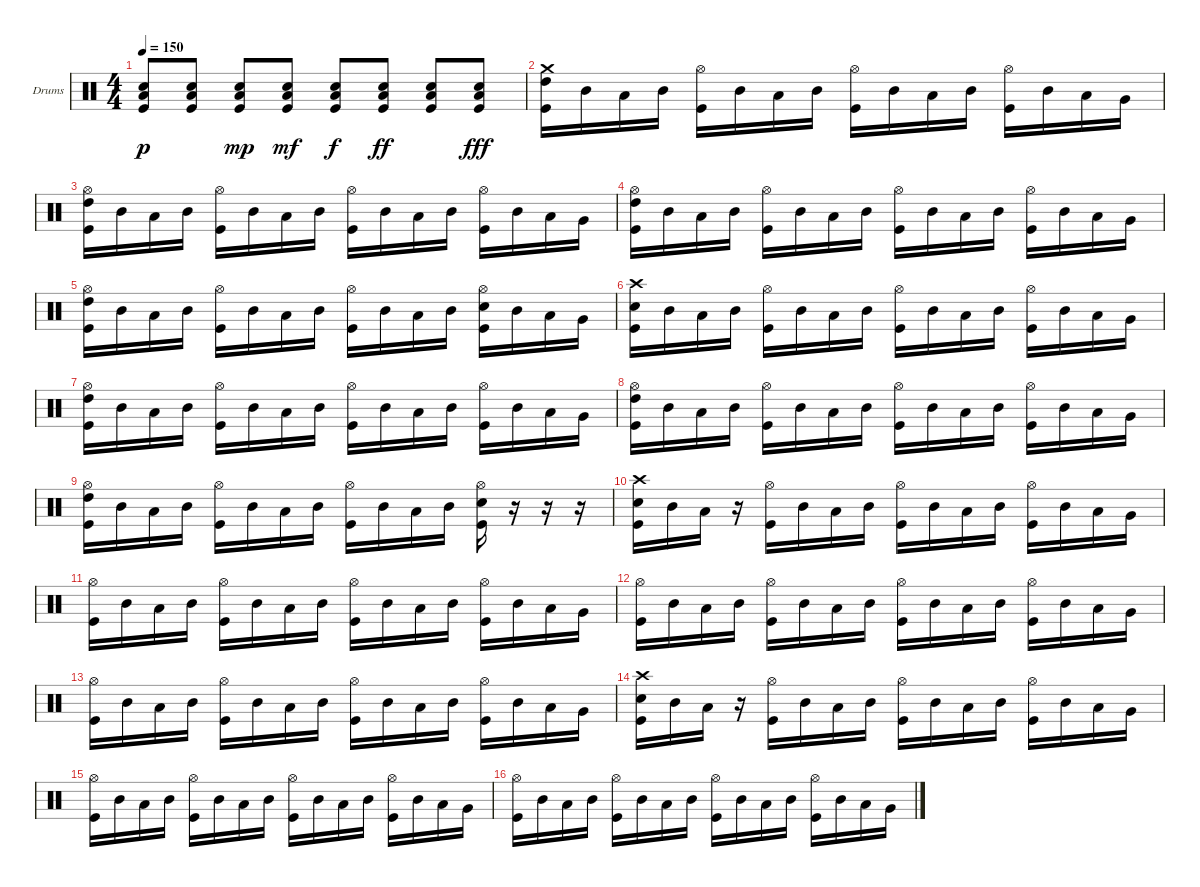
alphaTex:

\bracketExtendMode groupsimilarinstruments
\firstSystemTrackNameOrientation horizontal
\otherSystemsTrackNameOrientation horizontal
\track ("Corey" "Drums") {instrument percussion}
\staff {score}
\articulation defaults
\ts (4 4)
\tempo 150
\clef neutral
\ks c
("Kick (hit)" "Low Tom (hit)" "Snare (hit) 2").8{dy p} ("Kick (hit)" "Low Tom (hit)" "Snare (hit) 2").8 ("Kick (hit)" "Low Tom (hit)" "Snare (hit) 2").8{dy mp} ("Kick (hit)" "Low Tom (hit)" "Snare (hit) 2").8{dy mf} ("Kick (hit)" "Low Tom (hit)" "Snare (hit) 2").8{dy f} ("Kick (hit)" "Low Tom (hit)" "Snare (hit) 2").8{dy ff} ("Kick (hit)" "Low Tom (hit)" "Snare (hit) 2").8 ("Kick (hit)" "Low Tom (hit)" "Snare (hit) 2").8{dy fff} |
("High Tom (hit)" "Kick (hit)" "Crash medium (hit)").16 "Mid Tom (hit)".16 "Low Tom (hit)".16 "Mid Tom (hit)".16 ("Kick (hit)" "Hi-Hat (open)").16 "Mid Tom (hit)".16 "Low Tom (hit)".16 "Mid Tom (hit)".16 ("Kick (hit)" "Hi-Hat (open)").16 "Mid Tom (hit)".16 "Low Tom (hit)".16 "Mid Tom (hit)".16 ("Kick (hit)" "Hi-Hat (open)").16 "Mid Tom (hit)".16 "Low Tom (hit)".16 "Very Low Tom (hit)".16 |
("High Tom (hit)" "Kick (hit)" "Hi-Hat (open)").16 "Mid Tom (hit)".16 "Low Tom (hit)".16 "Mid Tom (hit)".16 ("Kick (hit)" "Hi-Hat (open)").16 "Mid Tom (hit)".16 "Low Tom (hit)".16 "Mid Tom (hit)".16 ("Kick (hit)" "Hi-Hat (open)").16 "Mid Tom (hit)".16 "Low Tom (hit)".16 "Mid Tom (hit)".16 ("Kick (hit)" "Hi-Hat (open)").16 "Mid Tom (hit)".16 "Low Tom (hit)".16 "Very Low Tom (hit)".16 |
("High Tom (hit)" "Kick (hit)" "Hi-Hat (open)").16 "Mid Tom (hit)".16 "Low Tom (hit)".16 "Mid Tom (hit)".16 ("Kick (hit)" "Hi-Hat (open)").16 "Mid Tom (hit)".16 "Low Tom (hit)".16 "Mid Tom (hit)".16 ("Kick (hit)" "Hi-Hat (open)").16 "Mid Tom (hit)".16 "Low Tom (hit)".16 "Mid Tom (hit)".16 ("Kick (hit)" "Hi-Hat (open)").16 "Mid Tom (hit)".16 "Low Tom (hit)".16 "Very Low Tom (hit)".16 |
("High Tom (hit)" "Kick (hit)" "Hi-Hat (open)").16 "Mid Tom (hit)".16 "Low Tom (hit)".16 "Mid Tom (hit)".16 ("Kick (hit)" "Hi-Hat (open)").16 "Mid Tom (hit)".16 "Low Tom (hit)".16 "Mid Tom (hit)".16 ("Kick (hit)" "Hi-Hat (open)").16 "Mid Tom (hit)".16 "Low Tom (hit)".16 "Mid Tom (hit)".16 ("Kick (hit)" "Snare (hit) 2" "Hi-Hat (open)").16 "Mid Tom (hit)".16 "Low Tom (hit)".16 "Very Low Tom (hit)".16 |
("Kick (hit)" "Snare (hit) 2" "Crash high (hit)").16 "Mid Tom (hit)".16 "Low Tom (hit)".16 "Mid Tom (hit)".16 ("Kick (hit)" "Hi-Hat (open)").16 "Mid Tom (hit)".16 "Low Tom (hit)".16 "Mid Tom (hit)".16 ("Kick (hit)" "Hi-Hat (open)").16 "Mid Tom (hit)".16 "Low Tom (hit)".16 "Mid Tom (hit)".16 ("Kick (hit)" "Hi-Hat (open)").16 "Mid Tom (hit)".16 "Low Tom (hit)".16 "Very Low Tom (hit)".16 |
("High Tom (hit)" "Kick (hit)" "Hi-Hat (open)").16 "Mid Tom (hit)".16 "Low Tom (hit)".16 "Mid Tom (hit)".16 ("Kick (hit)" "Hi-Hat (open)").16 "Mid Tom (hit)".16 "Low Tom (hit)".16 "Mid Tom (hit)".16 ("Kick (hit)" "Hi-Hat (open)").16 "Mid Tom (hit)".16 "Low Tom (hit)".16 "Mid Tom (hit)".16 ("Kick (hit)" "Hi-Hat (open)").16 "Mid Tom (hit)".16 "Low Tom (hit)".16 "Very Low Tom (hit)".16 |
("High Tom (hit)" "Kick (hit)" "Hi-Hat (open)").16 "Mid Tom (hit)".16 "Low Tom (hit)".16 "Mid Tom (hit)".16 ("Kick (hit)" "Hi-Hat (open)").16 "Mid Tom (hit)".16 "Low Tom (hit)".16 "Mid Tom (hit)".16 ("Kick (hit)" "Hi-Hat (open)").16 "Mid Tom (hit)".16 "Low Tom (hit)".16 "Mid Tom (hit)".16 ("Kick (hit)" "Hi-Hat (open)").16 "Mid Tom (hit)".16 "Low Tom (hit)".16 "Very Low Tom (hit)".16 |
("High Tom (hit)" "Kick (hit)" "Hi-Hat (open)").16 "Mid Tom (hit)".16 "Low Tom (hit)".16 "Mid Tom (hit)".16 ("Kick (hit)" "Hi-Hat (open)").16 "Mid Tom (hit)".16 "Low Tom (hit)".16 "Mid Tom (hit)".16 ("Kick (hit)" "Hi-Hat (open)").16 "Mid Tom (hit)".16 "Low Tom (hit)".16 "Mid Tom (hit)".16 ("Kick (hit)" "Snare (hit) 2" "Hi-Hat (open)").16 r.16 r.16 r.16 |
("Kick (hit)" "Snare (hit) 2" "Crash high (hit)").16 "Mid Tom (hit)".16 "Low Tom (hit)".16 r.16 ("Kick (hit)" "Hi-Hat (open)").16 "Mid Tom (hit)".16 "Low Tom (hit)".16 "Mid Tom (hit)".16 ("Kick (hit)" "Hi-Hat (open)").16 "Mid Tom (hit)".16 "Low Tom (hit)".16 "Mid Tom (hit)".16 ("Kick (hit)" "Hi-Hat (open)").16 "Mid Tom (hit)".16 "Low Tom (hit)".16 "Very Low Tom (hit)".16 |
("Kick (hit)" "Hi-Hat (open)").16 "Mid Tom (hit)".16 "Low Tom (hit)".16 "Mid Tom (hit)".16 ("Kick (hit)" "Hi-Hat (open)").16 "Mid Tom (hit)".16 "Low Tom (hit)".16 "Mid Tom (hit)".16 ("Kick (hit)" "Hi-Hat (open)").16 "Mid Tom (hit)".16 "Low Tom (hit)".16 "Mid Tom (hit)".16 ("Kick (hit)" "Hi-Hat (open)").16 "Mid Tom (hit)".16 "Low Tom (hit)".16 "Very Low Tom (hit)".16 |
("Kick (hit)" "Hi-Hat (open)").16 "Mid Tom (hit)".16 "Low Tom (hit)".16 "Mid Tom (hit)".16 ("Kick (hit)" "Hi-Hat (open)").16 "Mid Tom (hit)".16 "Low Tom (hit)".16 "Mid Tom (hit)".16 ("Kick (hit)" "Hi-Hat (open)").16 "Mid Tom (hit)".16 "Low Tom (hit)".16 "Mid Tom (hit)".16 ("Kick (hit)" "Hi-Hat (open)").16 "Mid Tom (hit)".16 "Low Tom (hit)".16 "Very Low Tom (hit)".16 |
("Kick (hit)" "Hi-Hat (open)").16 "Mid Tom (hit)".16 "Low Tom (hit)".16 "Mid Tom (hit)".16 ("Kick (hit)" "Hi-Hat (open)").16 "Mid Tom (hit)".16 "Low Tom (hit)".16 "Mid Tom (hit)".16 ("Kick (hit)" "Hi-Hat (open)").16 "Mid Tom (hit)".16 "Low Tom (hit)".16 "Mid Tom (hit)".16 ("Kick (hit)" "Hi-Hat (open)").16 "Mid Tom (hit)".16 "Low Tom (hit)".16 "Very Low Tom (hit)".16 |
("Kick (hit)" "Snare (hit) 2" "Crash high (hit)").16 "Mid Tom (hit)".16 "Low Tom (hit)".16 r.16 ("Kick (hit)" "Hi-Hat (open)").16 "Mid Tom (hit)".16 "Low Tom (hit)".16 "Mid Tom (hit)".16 ("Kick (hit)" "Hi-Hat (open)").16 "Mid Tom (hit)".16 "Low Tom (hit)".16 "Mid Tom (hit)".16 ("Kick (hit)" "Hi-Hat (open)").16 "Mid Tom (hit)".16 "Low Tom (hit)".16 "Very Low Tom (hit)".16 |
("Kick (hit)" "Hi-Hat (open)").16 "Mid Tom (hit)".16 "Low Tom (hit)".16 "Mid Tom (hit)".16 ("Kick (hit)" "Hi-Hat (open)").16 "Mid Tom (hit)".16 "Low Tom (hit)".16 "Mid Tom (hit)".16 ("Kick (hit)" "Hi-Hat (open)").16 "Mid Tom (hit)".16 "Low Tom (hit)".16 "Mid Tom (hit)".16 ("Kick (hit)" "Hi-Hat (open)").16 "Mid Tom (hit)".16 "Low Tom (hit)".16 "Very Low Tom (hit)".16 |
("Kick (hit)" "Hi-Hat (open)").16 "Mid Tom (hit)".16 "Low Tom (hit)".16 "Mid Tom (hit)".16 ("Kick (hit)" "Hi-Hat (open)").16 "Mid Tom (hit)".16 "Low Tom (hit)".16 "Mid Tom (hit)".16 ("Kick (hit)" "Hi-Hat (open)").16 "Mid Tom (hit)".16 "Low Tom (hit)".16 "Mid Tom (hit)".16 ("Kick (hit)" "Hi-Hat (open)").16 "Mid Tom (hit)".16 "Low Tom (hit)".16 "Very Low Tom (hit)".16
